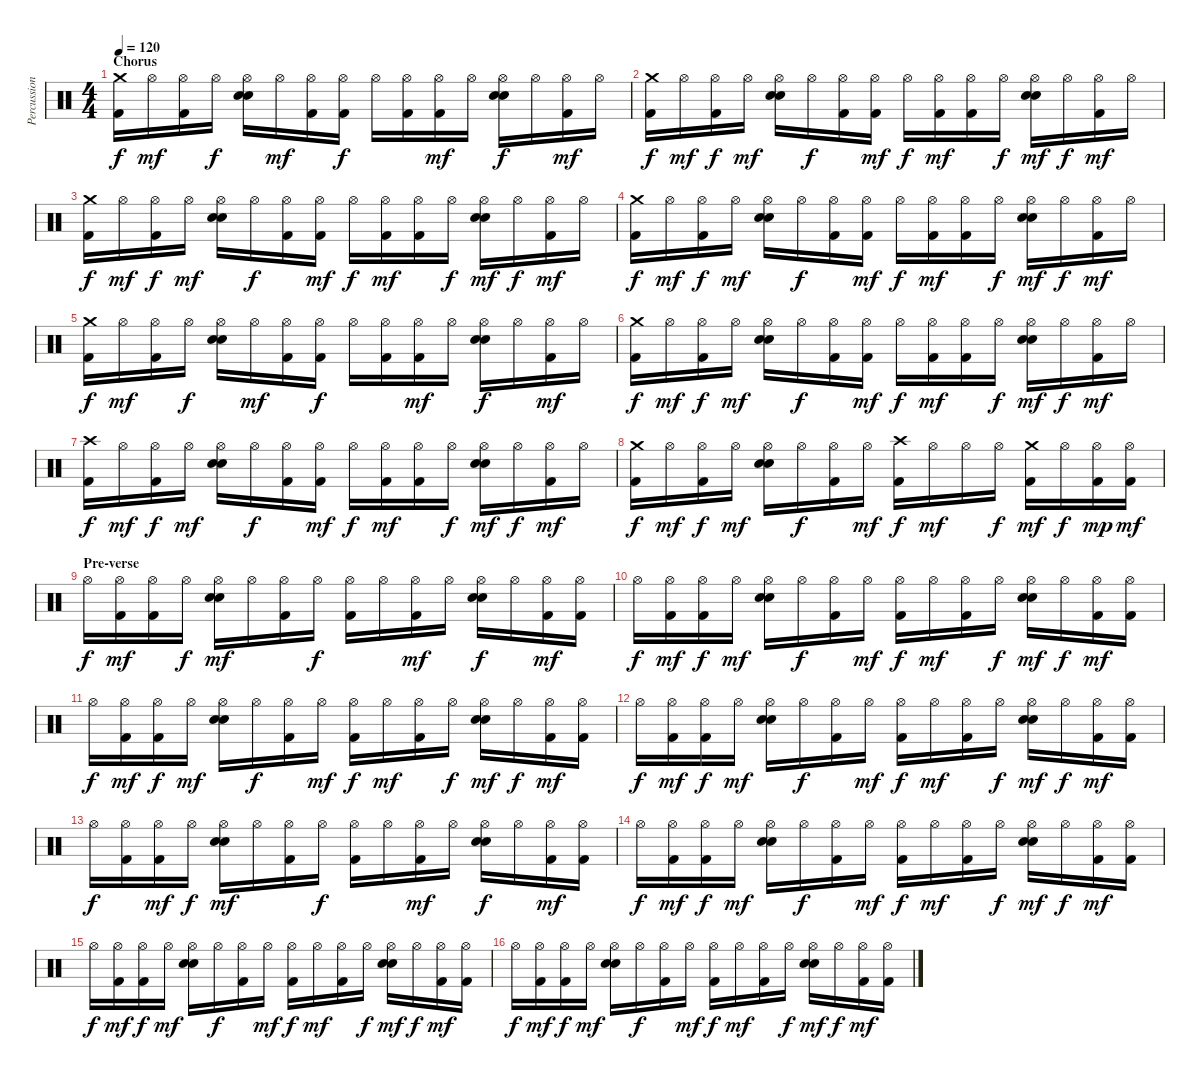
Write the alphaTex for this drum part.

\track ("Percussions" "Percussion") {instrument percussion}
\staff {score}
\articulation defaults
\ts (4 4)
\section ("" "Chorus")
\tempo 120
\clef neutral
\ks c
("Crash medium (hit)" "Kick (hit) 2").16{dy f} "Hi-Hat (open)".16{dy mf} ("Hi-Hat (open)" "Kick (hit) 2").16 "Hi-Hat (open)".16{dy f} ("Hi-Hat (open)" "Snare (hit) 2" "Electric Snare (hit)").16 "Hi-Hat (open)".16{dy mf} ("Hi-Hat (open)" "Kick (hit) 2").16 ("Hi-Hat (open)" "Kick (hit) 2").16{dy f} "Hi-Hat (open)".16 ("Hi-Hat (open)" "Kick (hit) 2").16 ("Hi-Hat (open)" "Kick (hit) 2").16{dy mf} "Hi-Hat (open)".16 ("Hi-Hat (open)" "Snare (hit) 2" "Electric Snare (hit)").16{dy f} "Hi-Hat (open)".16 ("Hi-Hat (open)" "Kick (hit) 2").16{dy mf} "Hi-Hat (open)".16 |
("Crash medium (hit)" "Kick (hit) 2").16{dy f} "Hi-Hat (open)".16{dy mf} ("Hi-Hat (open)" "Kick (hit) 2").16{dy f} "Hi-Hat (open)".16{dy mf} ("Hi-Hat (open)" "Snare (hit) 2" "Electric Snare (hit)").16 "Hi-Hat (open)".16{dy f} ("Hi-Hat (open)" "Kick (hit) 2").16 ("Hi-Hat (open)" "Kick (hit) 2").16{dy mf} "Hi-Hat (open)".16{dy f} ("Hi-Hat (open)" "Kick (hit) 2").16{dy mf} ("Hi-Hat (open)" "Kick (hit) 2").16 "Hi-Hat (open)".16{dy f} ("Hi-Hat (open)" "Snare (hit) 2" "Electric Snare (hit)").16{dy mf} "Hi-Hat (open)".16{dy f} ("Hi-Hat (open)" "Kick (hit) 2").16{dy mf} "Hi-Hat (open)".16 |
("Crash medium (hit)" "Kick (hit) 2").16{dy f} "Hi-Hat (open)".16{dy mf} ("Hi-Hat (open)" "Kick (hit) 2").16{dy f} "Hi-Hat (open)".16{dy mf} ("Hi-Hat (open)" "Snare (hit) 2" "Electric Snare (hit)").16 "Hi-Hat (open)".16{dy f} ("Hi-Hat (open)" "Kick (hit) 2").16 ("Hi-Hat (open)" "Kick (hit) 2").16{dy mf} "Hi-Hat (open)".16{dy f} ("Hi-Hat (open)" "Kick (hit) 2").16{dy mf} ("Hi-Hat (open)" "Kick (hit) 2").16 "Hi-Hat (open)".16{dy f} ("Hi-Hat (open)" "Snare (hit) 2" "Electric Snare (hit)").16{dy mf} "Hi-Hat (open)".16{dy f} ("Hi-Hat (open)" "Kick (hit) 2").16{dy mf} "Hi-Hat (open)".16 |
("Crash medium (hit)" "Kick (hit) 2").16{dy f} "Hi-Hat (open)".16{dy mf} ("Hi-Hat (open)" "Kick (hit) 2").16{dy f} "Hi-Hat (open)".16{dy mf} ("Hi-Hat (open)" "Snare (hit) 2" "Electric Snare (hit)").16 "Hi-Hat (open)".16{dy f} ("Hi-Hat (open)" "Kick (hit) 2").16 ("Hi-Hat (open)" "Kick (hit) 2").16{dy mf} "Hi-Hat (open)".16{dy f} ("Hi-Hat (open)" "Kick (hit) 2").16{dy mf} ("Hi-Hat (open)" "Kick (hit) 2").16 "Hi-Hat (open)".16{dy f} ("Hi-Hat (open)" "Snare (hit) 2" "Electric Snare (hit)").16{dy mf} "Hi-Hat (open)".16{dy f} ("Hi-Hat (open)" "Kick (hit) 2").16{dy mf} "Hi-Hat (open)".16 |
("Crash medium (hit)" "Kick (hit) 2").16{dy f} "Hi-Hat (open)".16{dy mf} ("Hi-Hat (open)" "Kick (hit) 2").16 "Hi-Hat (open)".16{dy f} ("Hi-Hat (open)" "Snare (hit) 2" "Electric Snare (hit)").16 "Hi-Hat (open)".16{dy mf} ("Hi-Hat (open)" "Kick (hit) 2").16 ("Hi-Hat (open)" "Kick (hit) 2").16{dy f} "Hi-Hat (open)".16 ("Hi-Hat (open)" "Kick (hit) 2").16 ("Hi-Hat (open)" "Kick (hit) 2").16{dy mf} "Hi-Hat (open)".16 ("Hi-Hat (open)" "Snare (hit) 2" "Electric Snare (hit)").16{dy f} "Hi-Hat (open)".16 ("Hi-Hat (open)" "Kick (hit) 2").16{dy mf} "Hi-Hat (open)".16 |
("Crash medium (hit)" "Kick (hit) 2").16{dy f} "Hi-Hat (open)".16{dy mf} ("Hi-Hat (open)" "Kick (hit) 2").16{dy f} "Hi-Hat (open)".16{dy mf} ("Hi-Hat (open)" "Snare (hit) 2" "Electric Snare (hit)").16 "Hi-Hat (open)".16{dy f} ("Hi-Hat (open)" "Kick (hit) 2").16 ("Hi-Hat (open)" "Kick (hit) 2").16{dy mf} "Hi-Hat (open)".16{dy f} ("Hi-Hat (open)" "Kick (hit) 2").16{dy mf} ("Hi-Hat (open)" "Kick (hit) 2").16 "Hi-Hat (open)".16{dy f} ("Hi-Hat (open)" "Snare (hit) 2" "Electric Snare (hit)").16{dy mf} "Hi-Hat (open)".16{dy f} ("Hi-Hat (open)" "Kick (hit) 2").16{dy mf} "Hi-Hat (open)".16 |
("Crash high (hit)" "Kick (hit) 2").16{dy f} "Hi-Hat (open)".16{dy mf} ("Hi-Hat (open)" "Kick (hit) 2").16{dy f} "Hi-Hat (open)".16{dy mf} ("Hi-Hat (open)" "Snare (hit) 2" "Electric Snare (hit)").16 "Hi-Hat (open)".16{dy f} ("Hi-Hat (open)" "Kick (hit) 2").16 ("Hi-Hat (open)" "Kick (hit) 2").16{dy mf} "Hi-Hat (open)".16{dy f} ("Hi-Hat (open)" "Kick (hit) 2").16{dy mf} ("Hi-Hat (open)" "Kick (hit) 2").16 "Hi-Hat (open)".16{dy f} ("Hi-Hat (open)" "Snare (hit) 2" "Electric Snare (hit)").16{dy mf} "Hi-Hat (open)".16{dy f} ("Hi-Hat (open)" "Kick (hit) 2").16{dy mf} "Hi-Hat (open)".16 |
("Crash medium (hit)" "Kick (hit) 2").16{dy f} "Hi-Hat (open)".16{dy mf} ("Hi-Hat (open)" "Kick (hit) 2").16{dy f} "Hi-Hat (open)".16{dy mf} ("Hi-Hat (open)" "Snare (hit) 2" "Electric Snare (hit)").16 "Hi-Hat (open)".16{dy f} ("Hi-Hat (open)" "Kick (hit) 2").16 "Hi-Hat (open)".16{dy mf} ("Crash high (hit)" "Kick (hit) 2").16{dy f} "Hi-Hat (open)".16{dy mf} "Hi-Hat (open)".16 "Hi-Hat (open)".16{dy f} ("Crash medium (hit)" "Kick (hit) 2").16{dy mf} "Hi-Hat (open)".16{dy f} ("Hi-Hat (open)" "Kick (hit) 2").16{dy mp} ("Hi-Hat (open)" "Kick (hit) 2").16{dy mf} |
\section ("" "Pre-verse")
"Hi-Hat (open)".16{dy f} ("Hi-Hat (open)" "Kick (hit) 2").16{dy mf} ("Hi-Hat (open)" "Kick (hit) 2").16 "Hi-Hat (open)".16{dy f} ("Hi-Hat (open)" "Snare (hit) 2" "Electric Snare (hit)").16{dy mf} "Hi-Hat (open)".16 ("Hi-Hat (open)" "Kick (hit) 2").16 "Hi-Hat (open)".16{dy f} ("Hi-Hat (open)" "Kick (hit) 2").16 "Hi-Hat (open)".16 ("Hi-Hat (open)" "Kick (hit) 2").16{dy mf} "Hi-Hat (open)".16 ("Hi-Hat (open)" "Snare (hit) 2" "Electric Snare (hit)").16{dy f} "Hi-Hat (open)".16 ("Hi-Hat (open)" "Kick (hit) 2").16{dy mf} ("Hi-Hat (open)" "Kick (hit) 2").16 |
"Hi-Hat (open)".16{dy f} ("Hi-Hat (open)" "Kick (hit) 2").16{dy mf} ("Hi-Hat (open)" "Kick (hit) 2").16{dy f} "Hi-Hat (open)".16{dy mf} ("Hi-Hat (open)" "Snare (hit) 2" "Electric Snare (hit)").16 "Hi-Hat (open)".16{dy f} ("Hi-Hat (open)" "Kick (hit) 2").16 "Hi-Hat (open)".16{dy mf} ("Hi-Hat (open)" "Kick (hit) 2").16{dy f} "Hi-Hat (open)".16{dy mf} ("Hi-Hat (open)" "Kick (hit) 2").16 "Hi-Hat (open)".16{dy f} ("Hi-Hat (open)" "Snare (hit) 2" "Electric Snare (hit)").16{dy mf} "Hi-Hat (open)".16{dy f} ("Hi-Hat (open)" "Kick (hit) 2").16{dy mf} ("Hi-Hat (open)" "Kick (hit) 2").16 |
"Hi-Hat (open)".16{dy f} ("Hi-Hat (open)" "Kick (hit) 2").16{dy mf} ("Hi-Hat (open)" "Kick (hit) 2").16{dy f} "Hi-Hat (open)".16{dy mf} ("Hi-Hat (open)" "Snare (hit) 2" "Electric Snare (hit)").16 "Hi-Hat (open)".16{dy f} ("Hi-Hat (open)" "Kick (hit) 2").16 "Hi-Hat (open)".16{dy mf} ("Hi-Hat (open)" "Kick (hit) 2").16{dy f} "Hi-Hat (open)".16{dy mf} ("Hi-Hat (open)" "Kick (hit) 2").16 "Hi-Hat (open)".16{dy f} ("Hi-Hat (open)" "Snare (hit) 2" "Electric Snare (hit)").16{dy mf} "Hi-Hat (open)".16{dy f} ("Hi-Hat (open)" "Kick (hit) 2").16{dy mf} ("Hi-Hat (open)" "Kick (hit) 2").16 |
"Hi-Hat (open)".16{dy f} ("Hi-Hat (open)" "Kick (hit) 2").16{dy mf} ("Hi-Hat (open)" "Kick (hit) 2").16{dy f} "Hi-Hat (open)".16{dy mf} ("Hi-Hat (open)" "Snare (hit) 2" "Electric Snare (hit)").16 "Hi-Hat (open)".16{dy f} ("Hi-Hat (open)" "Kick (hit) 2").16 "Hi-Hat (open)".16{dy mf} ("Hi-Hat (open)" "Kick (hit) 2").16{dy f} "Hi-Hat (open)".16{dy mf} ("Hi-Hat (open)" "Kick (hit) 2").16 "Hi-Hat (open)".16{dy f} ("Hi-Hat (open)" "Snare (hit) 2" "Electric Snare (hit)").16{dy mf} "Hi-Hat (open)".16{dy f} ("Hi-Hat (open)" "Kick (hit) 2").16{dy mf} ("Hi-Hat (open)" "Kick (hit) 2").16 |
"Hi-Hat (open)".16{dy f} ("Hi-Hat (open)" "Kick (hit) 2").16 ("Hi-Hat (open)" "Kick (hit) 2").16{dy mf} "Hi-Hat (open)".16{dy f} ("Hi-Hat (open)" "Snare (hit) 2" "Electric Snare (hit)").16{dy mf} "Hi-Hat (open)".16 ("Hi-Hat (open)" "Kick (hit) 2").16 "Hi-Hat (open)".16{dy f} ("Hi-Hat (open)" "Kick (hit) 2").16 "Hi-Hat (open)".16 ("Hi-Hat (open)" "Kick (hit) 2").16{dy mf} "Hi-Hat (open)".16 ("Hi-Hat (open)" "Snare (hit) 2" "Electric Snare (hit)").16{dy f} "Hi-Hat (open)".16 ("Hi-Hat (open)" "Kick (hit) 2").16{dy mf} ("Hi-Hat (open)" "Kick (hit) 2").16 |
"Hi-Hat (open)".16{dy f} ("Hi-Hat (open)" "Kick (hit) 2").16{dy mf} ("Hi-Hat (open)" "Kick (hit) 2").16{dy f} "Hi-Hat (open)".16{dy mf} ("Hi-Hat (open)" "Snare (hit) 2" "Electric Snare (hit)").16 "Hi-Hat (open)".16{dy f} ("Hi-Hat (open)" "Kick (hit) 2").16 "Hi-Hat (open)".16{dy mf} ("Hi-Hat (open)" "Kick (hit) 2").16{dy f} "Hi-Hat (open)".16{dy mf} ("Hi-Hat (open)" "Kick (hit) 2").16 "Hi-Hat (open)".16{dy f} ("Hi-Hat (open)" "Snare (hit) 2" "Electric Snare (hit)").16{dy mf} "Hi-Hat (open)".16{dy f} ("Hi-Hat (open)" "Kick (hit) 2").16{dy mf} ("Hi-Hat (open)" "Kick (hit) 2").16 |
"Hi-Hat (open)".16{dy f} ("Hi-Hat (open)" "Kick (hit) 2").16{dy mf} ("Hi-Hat (open)" "Kick (hit) 2").16{dy f} "Hi-Hat (open)".16{dy mf} ("Hi-Hat (open)" "Snare (hit) 2" "Electric Snare (hit)").16 "Hi-Hat (open)".16{dy f} ("Hi-Hat (open)" "Kick (hit) 2").16 "Hi-Hat (open)".16{dy mf} ("Hi-Hat (open)" "Kick (hit) 2").16{dy f} "Hi-Hat (open)".16{dy mf} ("Hi-Hat (open)" "Kick (hit) 2").16 "Hi-Hat (open)".16{dy f} ("Hi-Hat (open)" "Snare (hit) 2" "Electric Snare (hit)").16{dy mf} "Hi-Hat (open)".16{dy f} ("Hi-Hat (open)" "Kick (hit) 2").16{dy mf} ("Hi-Hat (open)" "Kick (hit) 2").16 |
"Hi-Hat (open)".16{dy f} ("Hi-Hat (open)" "Kick (hit) 2").16{dy mf} ("Hi-Hat (open)" "Kick (hit) 2").16{dy f} "Hi-Hat (open)".16{dy mf} ("Hi-Hat (open)" "Snare (hit) 2" "Electric Snare (hit)").16 "Hi-Hat (open)".16{dy f} ("Hi-Hat (open)" "Kick (hit) 2").16 "Hi-Hat (open)".16{dy mf} ("Hi-Hat (open)" "Kick (hit) 2").16{dy f} "Hi-Hat (open)".16{dy mf} ("Hi-Hat (open)" "Kick (hit) 2").16 "Hi-Hat (open)".16{dy f} ("Hi-Hat (open)" "Snare (hit) 2" "Electric Snare (hit)").16{dy mf} "Hi-Hat (open)".16{dy f} ("Hi-Hat (open)" "Kick (hit) 2").16{dy mf} ("Hi-Hat (open)" "Kick (hit) 2").16
